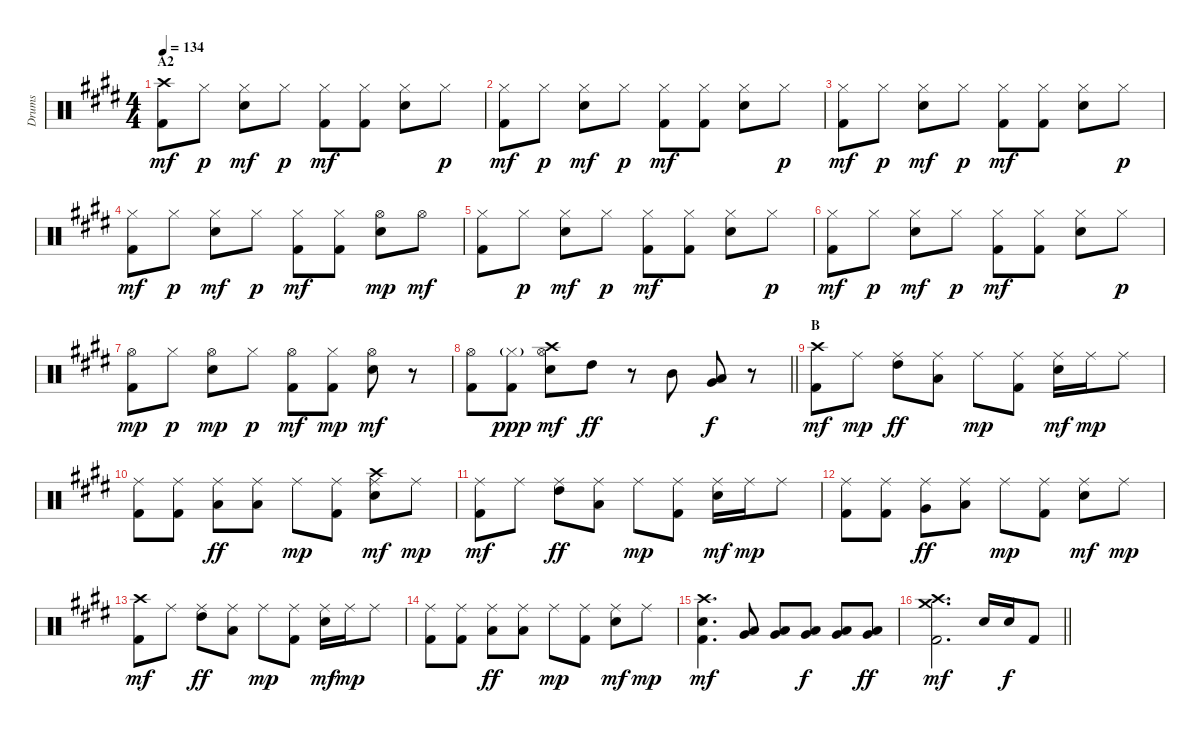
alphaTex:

\track ("Drums" "Drums") {instrument percussion}
\staff {score}
\articulation defaults
\ts (4 4)
\section ("" "A2")
\tempo 134
\clef neutral
\ks e
("Crash high (hit)" "Kick (hit) 2").8{dy mf} "Hi-Hat (closed)".8{dy p} ("Hi-Hat (closed)" "Electric Snare (hit)").8{dy mf} "Hi-Hat (closed)".8{dy p} ("Hi-Hat (closed)" "Kick (hit) 2").8{dy mf} ("Hi-Hat (closed)" "Kick (hit) 2").8 ("Hi-Hat (closed)" "Electric Snare (hit)").8 "Hi-Hat (closed)".8{dy p} |
("Hi-Hat (closed)" "Kick (hit) 2").8{dy mf} "Hi-Hat (closed)".8{dy p} ("Hi-Hat (closed)" "Electric Snare (hit)").8{dy mf} "Hi-Hat (closed)".8{dy p} ("Hi-Hat (closed)" "Kick (hit) 2").8{dy mf} ("Hi-Hat (closed)" "Kick (hit) 2").8 ("Hi-Hat (closed)" "Electric Snare (hit)").8 "Hi-Hat (closed)".8{dy p} |
("Hi-Hat (closed)" "Kick (hit) 2").8{dy mf} "Hi-Hat (closed)".8{dy p} ("Hi-Hat (closed)" "Electric Snare (hit)").8{dy mf} "Hi-Hat (closed)".8{dy p} ("Hi-Hat (closed)" "Kick (hit) 2").8{dy mf} ("Hi-Hat (closed)" "Kick (hit) 2").8 ("Hi-Hat (closed)" "Electric Snare (hit)").8 "Hi-Hat (closed)".8{dy p} |
("Hi-Hat (closed)" "Kick (hit) 2").8{dy mf} "Hi-Hat (closed)".8{dy p} ("Hi-Hat (closed)" "Electric Snare (hit)").8{dy mf} "Hi-Hat (closed)".8{dy p} ("Hi-Hat (closed)" "Kick (hit) 2").8{dy mf} ("Hi-Hat (closed)" "Kick (hit) 2").8 ("Hi-Hat (open)" "Electric Snare (hit)").8{dy mp} "Hi-Hat (open)".8{dy mf} |
("Hi-Hat (closed)" "Kick (hit) 2").8 "Hi-Hat (closed)".8{dy p} ("Hi-Hat (closed)" "Electric Snare (hit)").8{dy mf} "Hi-Hat (closed)".8{dy p} ("Hi-Hat (closed)" "Kick (hit) 2").8{dy mf} ("Hi-Hat (closed)" "Kick (hit) 2").8 ("Hi-Hat (closed)" "Electric Snare (hit)").8 "Hi-Hat (closed)".8{dy p} |
("Hi-Hat (closed)" "Kick (hit) 2").8{dy mf} "Hi-Hat (closed)".8{dy p} ("Hi-Hat (closed)" "Electric Snare (hit)").8{dy mf} "Hi-Hat (closed)".8{dy p} ("Hi-Hat (closed)" "Kick (hit) 2").8{dy mf} ("Hi-Hat (closed)" "Kick (hit) 2").8 ("Hi-Hat (closed)" "Electric Snare (hit)").8 "Hi-Hat (closed)".8{dy p} |
("Hi-Hat (open)" "Kick (hit) 2").8{dy mp} "Hi-Hat (closed)".8{dy p} ("Hi-Hat (open)" "Electric Snare (hit)").8{dy mp} "Hi-Hat (closed)".8{dy p} ("Hi-Hat (open)" "Kick (hit) 2").8{dy mf} ("Hi-Hat (closed)" "Kick (hit) 2").8{dy mp} ("Hi-Hat (open)" "Electric Snare (hit)").8{dy mf} r.8 |
\barLineRight lightlight
("Hi-Hat (open)" "Kick (hit) 2").8 ("Hi-Hat (closed)"{g} "Kick (hit) 2").8{dy ppp} ("Crash high (hit)" "Hi-Hat (open)" "Electric Snare (hit)").8{dy mf} "High Tom (hit)".8{dy ff} r.8 "Mid Tom (hit)".8 ("Very Low Tom (hit)" "Low Floor Tom (hit)").8{dy f} r.8 |
\section ("" "B")
("Crash high (hit)" "Kick (hit) 2").8{dy mf} "Ride (middle)".8{dy mp} ("Ride (middle)" "High Tom (hit)").8{dy ff} ("Ride (middle)" "Low Tom (hit)").8 "Ride (middle)".8{dy mp} ("Ride (middle)" "Kick (hit) 2").8 ("Ride (middle)" "Electric Snare (hit)").16{dy mf} "Ride (middle)".16{dy mp} "Ride (middle)".8 |
("Ride (middle)" "Kick (hit) 2").8 ("Ride (middle)" "Kick (hit) 2").8 ("Ride (middle)" "Low Tom (hit)").8{dy ff} ("Ride (middle)" "Low Floor Tom (hit)").8 "Ride (middle)".8{dy mp} ("Ride (middle)" "Kick (hit) 2").8 ("Ride (middle)" "Electric Snare (hit)" "Crash high (hit)").8{dy mf} "Ride (middle)".8{dy mp} |
("Ride (middle)" "Kick (hit) 2").8{dy mf} "Ride (middle)".8 ("Ride (middle)" "High Tom (hit)").8{dy ff} ("Ride (middle)" "Low Tom (hit)").8 "Ride (middle)".8{dy mp} ("Ride (middle)" "Kick (hit) 2").8 ("Ride (middle)" "Electric Snare (hit)").16{dy mf} "Ride (middle)".16{dy mp} "Ride (middle)".8 |
("Ride (middle)" "Kick (hit) 2").8 ("Ride (middle)" "Kick (hit) 2").8 ("Ride (middle)" "Very Low Tom (hit)").8{dy ff} ("Ride (middle)" "Low Tom (hit)").8 "Ride (middle)".8{dy mp} ("Ride (middle)" "Kick (hit) 2").8 ("Ride (middle)" "Electric Snare (hit)").8{dy mf} "Ride (middle)".8{dy mp} |
("Crash high (hit)" "Kick (hit) 2").8{dy mf} "Ride (middle)".8 ("Ride (middle)" "High Tom (hit)").8{dy ff} ("Ride (middle)" "Low Tom (hit)").8 "Ride (middle)".8{dy mp} ("Ride (middle)" "Kick (hit) 2").8 ("Ride (middle)" "Electric Snare (hit)").16{dy mf} "Ride (middle)".16{dy mp} "Ride (middle)".8 |
("Ride (middle)" "Kick (hit) 2").8 ("Ride (middle)" "Kick (hit) 2").8 ("Ride (middle)" "Low Tom (hit)").8{dy ff} ("Ride (middle)" "Low Floor Tom (hit)").8 "Ride (middle)".8{dy mp} ("Ride (middle)" "Kick (hit) 2").8 ("Ride (middle)" "Electric Snare (hit)").8{dy mf} "Ride (middle)".8{dy mp} |
("Crash high (hit)" "Snare (hit) 2" "Kick (hit) 2").4{d dy mf} ("Low Tom (hit)" "Very Low Tom (hit)").8 ("Low Tom (hit)" "Very Low Tom (hit)").8 ("Low Tom (hit)" "Very Low Tom (hit)").8{dy f} ("Low Tom (hit)" "Very Low Tom (hit)").8 ("Low Tom (hit)" "Very Low Tom (hit)").8{dy ff} |
\barLineRight lightlight
("Crash high (hit)" "Crash medium (hit)" "Kick (hit) 2").2{d dy mf} "Electric Snare (hit)".16 "Electric Snare (hit)".16{dy f} "Kick (hit) 2".8
